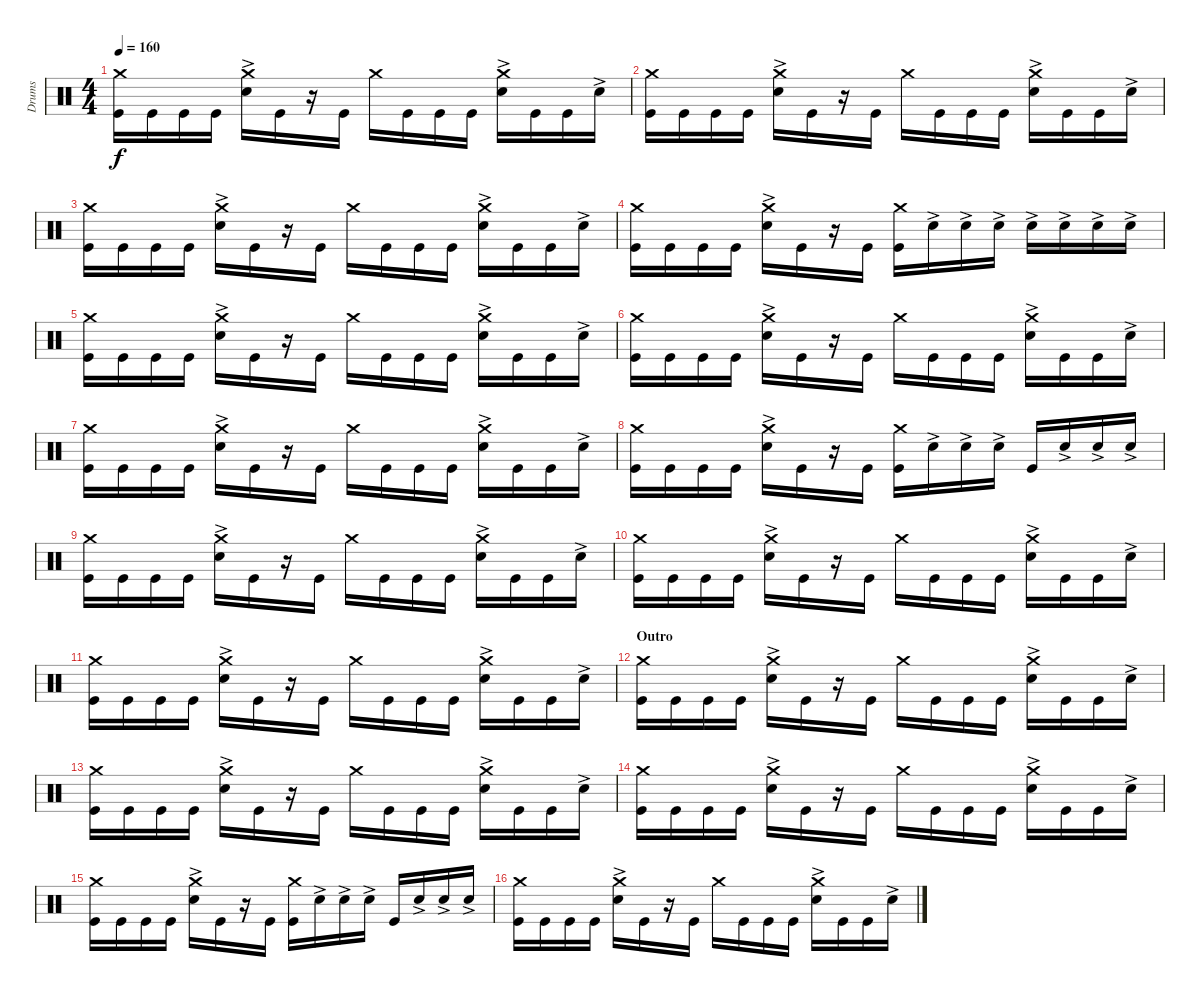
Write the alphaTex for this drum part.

\track ("Drums" "Drums") {instrument percussion}
\staff {score}
\articulation defaults
\ts (4 4)
\tempo 160
\clef neutral
\ks c
("Crash medium (hit)" "Kick (hit)").16{dy f} "Kick (hit)".16 "Kick (hit)".16 "Kick (hit)".16 ("Crash medium (hit)" "Snare (hit) 2"{ac}).16 "Kick (hit)".16 r.16 "Kick (hit)".16 "Crash medium (hit)".16 "Kick (hit)".16 "Kick (hit)".16 "Kick (hit)".16 ("Crash medium (hit)" "Snare (hit) 2"{ac}).16 "Kick (hit)".16 "Kick (hit)".16 "Snare (hit) 2"{ac}.16 |
("Crash medium (hit)" "Kick (hit)").16 "Kick (hit)".16 "Kick (hit)".16 "Kick (hit)".16 ("Crash medium (hit)" "Snare (hit) 2"{ac}).16 "Kick (hit)".16 r.16 "Kick (hit)".16 "Crash medium (hit)".16 "Kick (hit)".16 "Kick (hit)".16 "Kick (hit)".16 ("Crash medium (hit)" "Snare (hit) 2"{ac}).16 "Kick (hit)".16 "Kick (hit)".16 "Snare (hit) 2"{ac}.16 |
("Crash medium (hit)" "Kick (hit)").16 "Kick (hit)".16 "Kick (hit)".16 "Kick (hit)".16 ("Crash medium (hit)" "Snare (hit) 2"{ac}).16 "Kick (hit)".16 r.16 "Kick (hit)".16 "Crash medium (hit)".16 "Kick (hit)".16 "Kick (hit)".16 "Kick (hit)".16 ("Crash medium (hit)" "Snare (hit) 2"{ac}).16 "Kick (hit)".16 "Kick (hit)".16 "Snare (hit) 2"{ac}.16 |
("Crash medium (hit)" "Kick (hit)").16 "Kick (hit)".16 "Kick (hit)".16 "Kick (hit)".16 ("Crash medium (hit)" "Snare (hit) 2"{ac}).16 "Kick (hit)".16 r.16 "Kick (hit)".16 ("Kick (hit)" "Crash medium (hit)").16 "Snare (hit) 2"{ac}.16 "Snare (hit) 2"{ac}.16 "Snare (hit) 2"{ac}.16 "Snare (hit) 2"{ac}.16 "Snare (hit) 2"{ac}.16 "Snare (hit) 2"{ac}.16 "Snare (hit) 2"{ac}.16 |
("Crash medium (hit)" "Kick (hit)").16 "Kick (hit)".16 "Kick (hit)".16 "Kick (hit)".16 ("Crash medium (hit)" "Snare (hit) 2"{ac}).16 "Kick (hit)".16 r.16 "Kick (hit)".16 "Crash medium (hit)".16 "Kick (hit)".16 "Kick (hit)".16 "Kick (hit)".16 ("Crash medium (hit)" "Snare (hit) 2"{ac}).16 "Kick (hit)".16 "Kick (hit)".16 "Snare (hit) 2"{ac}.16 |
("Crash medium (hit)" "Kick (hit)").16 "Kick (hit)".16 "Kick (hit)".16 "Kick (hit)".16 ("Crash medium (hit)" "Snare (hit) 2"{ac}).16 "Kick (hit)".16 r.16 "Kick (hit)".16 "Crash medium (hit)".16 "Kick (hit)".16 "Kick (hit)".16 "Kick (hit)".16 ("Crash medium (hit)" "Snare (hit) 2"{ac}).16 "Kick (hit)".16 "Kick (hit)".16 "Snare (hit) 2"{ac}.16 |
("Crash medium (hit)" "Kick (hit)").16 "Kick (hit)".16 "Kick (hit)".16 "Kick (hit)".16 ("Crash medium (hit)" "Snare (hit) 2"{ac}).16 "Kick (hit)".16 r.16 "Kick (hit)".16 "Crash medium (hit)".16 "Kick (hit)".16 "Kick (hit)".16 "Kick (hit)".16 ("Crash medium (hit)" "Snare (hit) 2"{ac}).16 "Kick (hit)".16 "Kick (hit)".16 "Snare (hit) 2"{ac}.16 |
("Crash medium (hit)" "Kick (hit)").16 "Kick (hit)".16 "Kick (hit)".16 "Kick (hit)".16 ("Crash medium (hit)" "Snare (hit) 2"{ac}).16 "Kick (hit)".16 r.16 "Kick (hit)".16 ("Kick (hit)" "Crash medium (hit)").16 "Snare (hit) 2"{ac}.16 "Snare (hit) 2"{ac}.16 "Snare (hit) 2"{ac}.16 "Kick (hit)".16 "Snare (hit) 2"{ac}.16 "Snare (hit) 2"{ac}.16 "Snare (hit) 2"{ac}.16 |
("Crash medium (hit)" "Kick (hit)").16 "Kick (hit)".16 "Kick (hit)".16 "Kick (hit)".16 ("Crash medium (hit)" "Snare (hit) 2"{ac}).16 "Kick (hit)".16 r.16 "Kick (hit)".16 "Crash medium (hit)".16 "Kick (hit)".16 "Kick (hit)".16 "Kick (hit)".16 ("Crash medium (hit)" "Snare (hit) 2"{ac}).16 "Kick (hit)".16 "Kick (hit)".16 "Snare (hit) 2"{ac}.16 |
("Crash medium (hit)" "Kick (hit)").16 "Kick (hit)".16 "Kick (hit)".16 "Kick (hit)".16 ("Crash medium (hit)" "Snare (hit) 2"{ac}).16 "Kick (hit)".16 r.16 "Kick (hit)".16 "Crash medium (hit)".16 "Kick (hit)".16 "Kick (hit)".16 "Kick (hit)".16 ("Crash medium (hit)" "Snare (hit) 2"{ac}).16 "Kick (hit)".16 "Kick (hit)".16 "Snare (hit) 2"{ac}.16 |
("Crash medium (hit)" "Kick (hit)").16 "Kick (hit)".16 "Kick (hit)".16 "Kick (hit)".16 ("Crash medium (hit)" "Snare (hit) 2"{ac}).16 "Kick (hit)".16 r.16 "Kick (hit)".16 "Crash medium (hit)".16 "Kick (hit)".16 "Kick (hit)".16 "Kick (hit)".16 ("Crash medium (hit)" "Snare (hit) 2"{ac}).16 "Kick (hit)".16 "Kick (hit)".16 "Snare (hit) 2"{ac}.16 |
\section ("" "Outro")
("Crash medium (hit)" "Kick (hit)").16 "Kick (hit)".16 "Kick (hit)".16 "Kick (hit)".16 ("Crash medium (hit)" "Snare (hit) 2"{ac}).16 "Kick (hit)".16 r.16 "Kick (hit)".16 "Crash medium (hit)".16 "Kick (hit)".16 "Kick (hit)".16 "Kick (hit)".16 ("Crash medium (hit)" "Snare (hit) 2"{ac}).16 "Kick (hit)".16 "Kick (hit)".16 "Snare (hit) 2"{ac}.16 |
("Crash medium (hit)" "Kick (hit)").16 "Kick (hit)".16 "Kick (hit)".16 "Kick (hit)".16 ("Crash medium (hit)" "Snare (hit) 2"{ac}).16 "Kick (hit)".16 r.16 "Kick (hit)".16 "Crash medium (hit)".16 "Kick (hit)".16 "Kick (hit)".16 "Kick (hit)".16 ("Crash medium (hit)" "Snare (hit) 2"{ac}).16 "Kick (hit)".16 "Kick (hit)".16 "Snare (hit) 2"{ac}.16 |
("Crash medium (hit)" "Kick (hit)").16 "Kick (hit)".16 "Kick (hit)".16 "Kick (hit)".16 ("Crash medium (hit)" "Snare (hit) 2"{ac}).16 "Kick (hit)".16 r.16 "Kick (hit)".16 "Crash medium (hit)".16 "Kick (hit)".16 "Kick (hit)".16 "Kick (hit)".16 ("Crash medium (hit)" "Snare (hit) 2"{ac}).16 "Kick (hit)".16 "Kick (hit)".16 "Snare (hit) 2"{ac}.16 |
("Crash medium (hit)" "Kick (hit)").16 "Kick (hit)".16 "Kick (hit)".16 "Kick (hit)".16 ("Crash medium (hit)" "Snare (hit) 2"{ac}).16 "Kick (hit)".16 r.16 "Kick (hit)".16 ("Kick (hit)" "Crash medium (hit)").16 "Snare (hit) 2"{ac}.16 "Snare (hit) 2"{ac}.16 "Snare (hit) 2"{ac}.16 "Kick (hit)".16 "Snare (hit) 2"{ac}.16 "Snare (hit) 2"{ac}.16 "Snare (hit) 2"{ac}.16 |
("Crash medium (hit)" "Kick (hit)").16 "Kick (hit)".16 "Kick (hit)".16 "Kick (hit)".16 ("Crash medium (hit)" "Snare (hit) 2"{ac}).16 "Kick (hit)".16 r.16 "Kick (hit)".16 "Crash medium (hit)".16 "Kick (hit)".16 "Kick (hit)".16 "Kick (hit)".16 ("Crash medium (hit)" "Snare (hit) 2"{ac}).16 "Kick (hit)".16 "Kick (hit)".16 "Snare (hit) 2"{ac}.16
